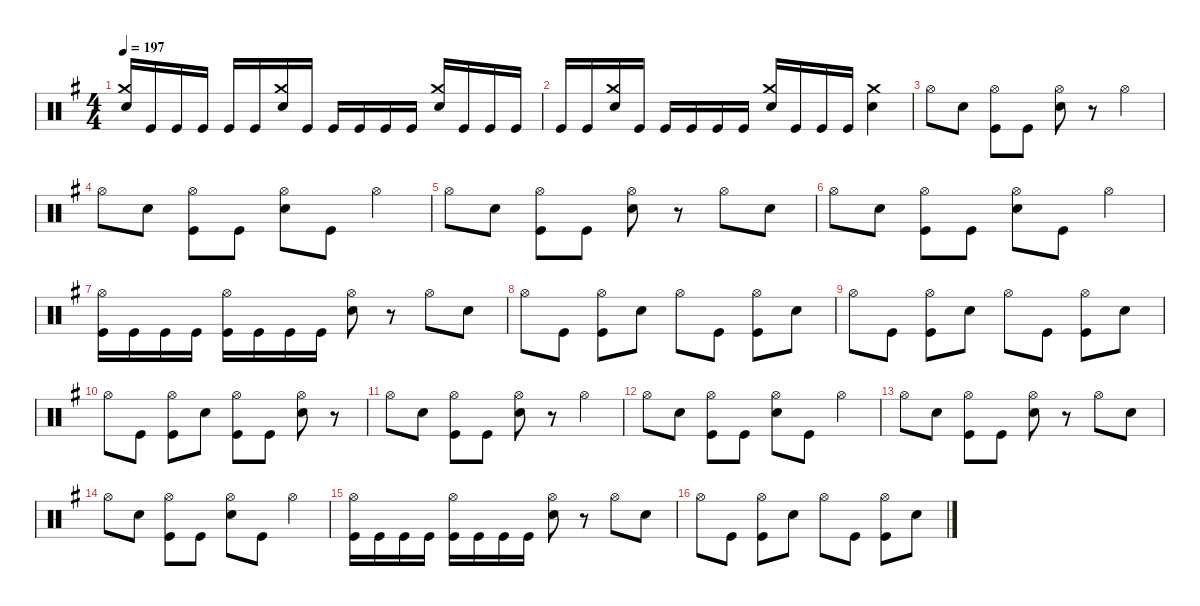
\defaultSystemsLayout 4
\hideDynamics
\bracketExtendMode nobrackets
\singleTrackTrackNamePolicy hidden
\multiTrackTrackNamePolicy hidden
\firstSystemTrackNameMode fullname
\firstSystemTrackNameOrientation horizontal
\otherSystemsTrackNameOrientation horizontal
\track ("Drums" "drm.") {defaultSystemsLayout 4 instrument percussion}
\staff {score}
\articulation defaults
\ts (4 4)
\tempo 197
\clef neutral
\ks eminor
("Crash medium (hit)"{acc forcenatural} "Snare (hit) 2"{acc forcenatural}).16{dy f beam Up} "Kick (hit)"{acc forcenatural}.16{beam Up} "Kick (hit)"{acc forcenatural}.16{beam Up} "Kick (hit)"{acc forcenatural}.16{beam Up} "Kick (hit)"{acc forcenatural}.16{beam Up} "Kick (hit)"{acc forcenatural}.16{beam Up} ("Crash medium (hit)"{acc forcenatural} "Snare (hit) 2"{acc forcenatural}).16{beam Up} "Kick (hit)"{acc forcenatural}.16{beam Up} "Kick (hit)"{acc forcenatural}.16{beam Up} "Kick (hit)"{acc forcenatural}.16{beam Up} "Kick (hit)"{acc forcenatural}.16{beam Up} "Kick (hit)"{acc forcenatural}.16{beam Up} ("Crash medium (hit)"{acc forcenatural} "Snare (hit) 2"{acc forcenatural}).16{beam Up} "Kick (hit)"{acc forcenatural}.16{beam Up} "Kick (hit)"{acc forcenatural}.16{beam Up} "Kick (hit)"{acc forcenatural}.16{beam Up} |
"Kick (hit)"{acc forcenatural}.16{beam Up} "Kick (hit)"{acc forcenatural}.16{beam Up} ("Crash medium (hit)"{acc forcenatural} "Snare (hit) 2"{acc forcenatural}).16{beam Up} "Kick (hit)"{acc forcenatural}.16{beam Up} "Kick (hit)"{acc forcenatural}.16{beam Up} "Kick (hit)"{acc forcenatural}.16{beam Up} "Kick (hit)"{acc forcenatural}.16{beam Up} "Kick (hit)"{acc forcenatural}.16{beam Up} ("Crash medium (hit)"{acc forcenatural} "Snare (hit) 2"{acc forcenatural}).16{beam Up} "Kick (hit)"{acc forcenatural}.16{beam Up} "Kick (hit)"{acc forcenatural}.16{beam Up} "Kick (hit)"{acc forcenatural}.16{beam Up} ("Crash medium (hit)"{acc forcenatural} "Snare (hit) 2"{acc forcenatural}).4{beam Down} |
"Hi-Hat (open)"{acc forcenatural}.8{dy mf beam Down} "Snare (hit) 2"{acc forcenatural}.8{dy f beam Down} ("Hi-Hat (open)"{acc forcenatural} "Kick (hit)"{acc forcenatural}).8{dy mf beam Down} "Kick (hit)"{acc forcenatural}.8{dy f beam Down} ("Hi-Hat (open)"{acc forcenatural} "Snare (hit) 2"{acc forcenatural}).8{dy mf beam Down} r.8{beam Down} "Hi-Hat (open)"{acc forcenatural}.4{beam Down} |
"Hi-Hat (open)"{acc forcenatural}.8{beam Down} "Snare (hit) 2"{acc forcenatural}.8{dy f beam Down} ("Hi-Hat (open)"{acc forcenatural} "Kick (hit)"{acc forcenatural}).8{dy mf beam Down} "Kick (hit)"{acc forcenatural}.8{dy f beam Down} ("Hi-Hat (open)"{acc forcenatural} "Snare (hit) 2"{acc forcenatural}).8{dy mf beam Down} "Kick (hit)"{acc forcenatural}.8{dy f beam Down} "Hi-Hat (open)"{acc forcenatural}.4{dy mf beam Down} |
"Hi-Hat (open)"{acc forcenatural}.8{beam Down} "Snare (hit) 2"{acc forcenatural}.8{dy f beam Down} ("Hi-Hat (open)"{acc forcenatural} "Kick (hit)"{acc forcenatural}).8{dy mf beam Down} "Kick (hit)"{acc forcenatural}.8{dy f beam Down} ("Hi-Hat (open)"{acc forcenatural} "Snare (hit) 2"{acc forcenatural}).8{dy mf beam Down} r.8{beam Down} "Hi-Hat (open)"{acc forcenatural}.8{beam Down} "Snare (hit) 2"{acc forcenatural}.8{dy f beam Down} |
"Hi-Hat (open)"{acc forcenatural}.8{dy mf beam Down} "Snare (hit) 2"{acc forcenatural}.8{dy f beam Down} ("Hi-Hat (open)"{acc forcenatural} "Kick (hit)"{acc forcenatural}).8{dy mf beam Down} "Kick (hit)"{acc forcenatural}.8{dy f beam Down} ("Hi-Hat (open)"{acc forcenatural} "Snare (hit) 2"{acc forcenatural}).8{dy mf beam Down} "Kick (hit)"{acc forcenatural}.8{dy f beam Down} "Hi-Hat (open)"{acc forcenatural}.4{dy mf beam Down} |
("Hi-Hat (open)"{acc forcenatural} "Kick (hit)"{acc forcenatural}).16{beam Down} "Kick (hit)"{acc forcenatural}.16{dy f beam Down} "Kick (hit)"{acc forcenatural}.16{beam Down} "Kick (hit)"{acc forcenatural}.16{beam Down} ("Hi-Hat (open)"{acc forcenatural} "Kick (hit)"{acc forcenatural}).16{dy mf beam Down} "Kick (hit)"{acc forcenatural}.16{dy f beam Down} "Kick (hit)"{acc forcenatural}.16{beam Down} "Kick (hit)"{acc forcenatural}.16{beam Down} ("Hi-Hat (open)"{acc forcenatural} "Snare (hit) 2"{acc forcenatural}).8{dy mf beam Down} r.8{beam Down} "Hi-Hat (open)"{acc forcenatural}.8{beam Down} "Snare (hit) 2"{acc forcenatural}.8{dy f beam Down} |
"Hi-Hat (open)"{acc forcenatural}.8{dy mf beam Down} "Kick (hit)"{acc forcenatural}.8{dy f beam Down} ("Hi-Hat (open)"{acc forcenatural} "Kick (hit)"{acc forcenatural}).8{dy mf beam Down} "Snare (hit) 2"{acc forcenatural}.8{dy f beam Down} "Hi-Hat (open)"{acc forcenatural}.8{dy mf beam Down} "Kick (hit)"{acc forcenatural}.8{dy f beam Down} ("Hi-Hat (open)"{acc forcenatural} "Kick (hit)"{acc forcenatural}).8{dy mf beam Down} "Snare (hit) 2"{acc forcenatural}.8{dy f beam Down} |
"Hi-Hat (open)"{acc forcenatural}.8{dy mf beam Down} "Kick (hit)"{acc forcenatural}.8{dy f beam Down} ("Hi-Hat (open)"{acc forcenatural} "Kick (hit)"{acc forcenatural}).8{dy mf beam Down} "Snare (hit) 2"{acc forcenatural}.8{dy f beam Down} "Hi-Hat (open)"{acc forcenatural}.8{dy mf beam Down} "Kick (hit)"{acc forcenatural}.8{dy f beam Down} ("Hi-Hat (open)"{acc forcenatural} "Kick (hit)"{acc forcenatural}).8{dy mf beam Down} "Snare (hit) 2"{acc forcenatural}.8{dy f beam Down} |
"Hi-Hat (open)"{acc forcenatural}.8{dy mf beam Down} "Kick (hit)"{acc forcenatural}.8{dy f beam Down} ("Hi-Hat (open)"{acc forcenatural} "Kick (hit)"{acc forcenatural}).8{dy mf beam Down} "Snare (hit) 2"{acc forcenatural}.8{dy f beam Down} ("Hi-Hat (open)"{acc forcenatural} "Kick (hit)"{acc forcenatural}).8{dy mf beam Down} "Kick (hit)"{acc forcenatural}.8{dy f beam Down} ("Hi-Hat (open)"{acc forcenatural} "Snare (hit) 2"{acc forcenatural}).8{dy mf beam Down} r.8{beam Down} |
"Hi-Hat (open)"{acc forcenatural}.8{beam Down} "Snare (hit) 2"{acc forcenatural}.8{dy f beam Down} ("Hi-Hat (open)"{acc forcenatural} "Kick (hit)"{acc forcenatural}).8{dy mf beam Down} "Kick (hit)"{acc forcenatural}.8{dy f beam Down} ("Hi-Hat (open)"{acc forcenatural} "Snare (hit) 2"{acc forcenatural}).8{dy mf beam Down} r.8{beam Down} "Hi-Hat (open)"{acc forcenatural}.4{beam Down} |
"Hi-Hat (open)"{acc forcenatural}.8{beam Down} "Snare (hit) 2"{acc forcenatural}.8{dy f beam Down} ("Hi-Hat (open)"{acc forcenatural} "Kick (hit)"{acc forcenatural}).8{dy mf beam Down} "Kick (hit)"{acc forcenatural}.8{dy f beam Down} ("Hi-Hat (open)"{acc forcenatural} "Snare (hit) 2"{acc forcenatural}).8{dy mf beam Down} "Kick (hit)"{acc forcenatural}.8{dy f beam Down} "Hi-Hat (open)"{acc forcenatural}.4{dy mf beam Down} |
"Hi-Hat (open)"{acc forcenatural}.8{beam Down} "Snare (hit) 2"{acc forcenatural}.8{dy f beam Down} ("Hi-Hat (open)"{acc forcenatural} "Kick (hit)"{acc forcenatural}).8{dy mf beam Down} "Kick (hit)"{acc forcenatural}.8{dy f beam Down} ("Hi-Hat (open)"{acc forcenatural} "Snare (hit) 2"{acc forcenatural}).8{dy mf beam Down} r.8{beam Down} "Hi-Hat (open)"{acc forcenatural}.8{beam Down} "Snare (hit) 2"{acc forcenatural}.8{dy f beam Down} |
"Hi-Hat (open)"{acc forcenatural}.8{dy mf beam Down} "Snare (hit) 2"{acc forcenatural}.8{dy f beam Down} ("Hi-Hat (open)"{acc forcenatural} "Kick (hit)"{acc forcenatural}).8{dy mf beam Down} "Kick (hit)"{acc forcenatural}.8{dy f beam Down} ("Hi-Hat (open)"{acc forcenatural} "Snare (hit) 2"{acc forcenatural}).8{dy mf beam Down} "Kick (hit)"{acc forcenatural}.8{dy f beam Down} "Hi-Hat (open)"{acc forcenatural}.4{dy mf beam Down} |
("Hi-Hat (open)"{acc forcenatural} "Kick (hit)"{acc forcenatural}).16{beam Down} "Kick (hit)"{acc forcenatural}.16{dy f beam Down} "Kick (hit)"{acc forcenatural}.16{beam Down} "Kick (hit)"{acc forcenatural}.16{beam Down} ("Hi-Hat (open)"{acc forcenatural} "Kick (hit)"{acc forcenatural}).16{dy mf beam Down} "Kick (hit)"{acc forcenatural}.16{dy f beam Down} "Kick (hit)"{acc forcenatural}.16{beam Down} "Kick (hit)"{acc forcenatural}.16{beam Down} ("Hi-Hat (open)"{acc forcenatural} "Snare (hit) 2"{acc forcenatural}).8{dy mf beam Down} r.8{beam Down} "Hi-Hat (open)"{acc forcenatural}.8{beam Down} "Snare (hit) 2"{acc forcenatural}.8{dy f beam Down} |
"Hi-Hat (open)"{acc forcenatural}.8{dy mf beam Down} "Kick (hit)"{acc forcenatural}.8{dy f beam Down} ("Hi-Hat (open)"{acc forcenatural} "Kick (hit)"{acc forcenatural}).8{dy mf beam Down} "Snare (hit) 2"{acc forcenatural}.8{dy f beam Down} "Hi-Hat (open)"{acc forcenatural}.8{dy mf beam Down} "Kick (hit)"{acc forcenatural}.8{dy f beam Down} ("Hi-Hat (open)"{acc forcenatural} "Kick (hit)"{acc forcenatural}).8{dy mf beam Down} "Snare (hit) 2"{acc forcenatural}.8{dy f beam Down}
